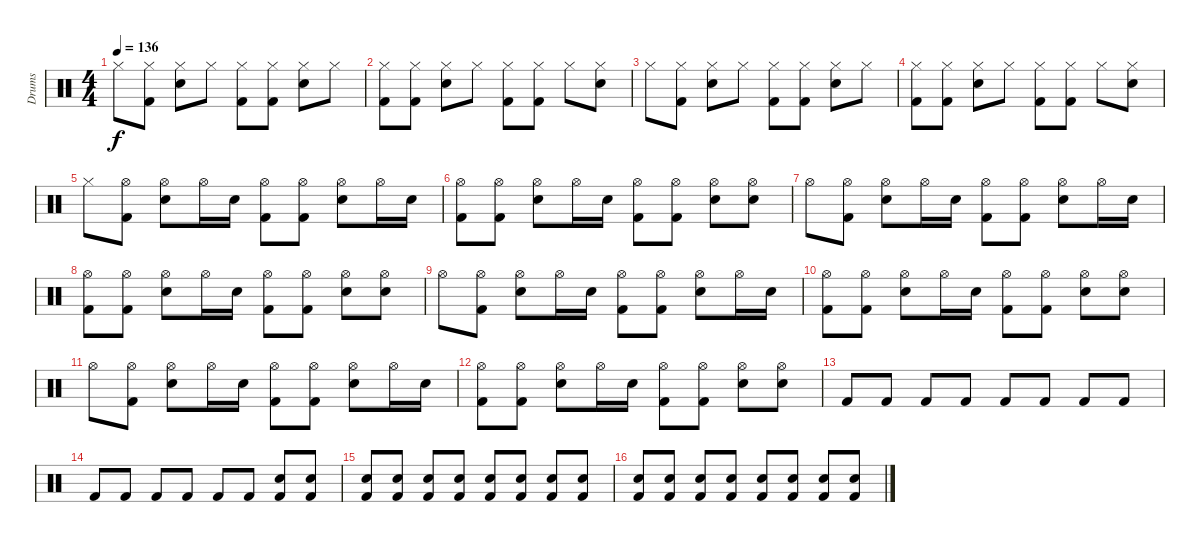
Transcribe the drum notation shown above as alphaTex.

\track ("Drums" "Drums") {instrument percussion}
\staff {score}
\articulation defaults
\ts (4 4)
\tempo 136
\clef neutral
\ks c "Hi-Hat (closed)".8{dy f}
("Hi-Hat (closed)" "Kick (hit) 2").8 ("Hi-Hat (closed)" "Snare (hit) 2").8 "Hi-Hat (closed)".8 ("Hi-Hat (closed)" "Kick (hit) 2").8 ("Hi-Hat (closed)" "Kick (hit) 2").8 ("Hi-Hat (closed)" "Snare (hit) 2").8 "Hi-Hat (closed)".8 |
("Hi-Hat (closed)" "Kick (hit) 2").8 ("Hi-Hat (closed)" "Kick (hit) 2").8 ("Hi-Hat (closed)" "Snare (hit) 2").8 "Hi-Hat (closed)".8 ("Hi-Hat (closed)" "Kick (hit) 2").8 ("Hi-Hat (closed)" "Kick (hit) 2").8 "Hi-Hat (closed)".8 ("Hi-Hat (closed)" "Snare (hit) 2").8 |
"Hi-Hat (closed)".8 ("Hi-Hat (closed)" "Kick (hit) 2").8 ("Hi-Hat (closed)" "Snare (hit) 2").8 "Hi-Hat (closed)".8 ("Hi-Hat (closed)" "Kick (hit) 2").8 ("Hi-Hat (closed)" "Kick (hit) 2").8 ("Hi-Hat (closed)" "Snare (hit) 2").8 "Hi-Hat (closed)".8 |
("Hi-Hat (closed)" "Kick (hit) 2").8 ("Hi-Hat (closed)" "Kick (hit) 2").8 ("Hi-Hat (closed)" "Snare (hit) 2").8 "Hi-Hat (closed)".8 ("Hi-Hat (closed)" "Kick (hit) 2").8 ("Hi-Hat (closed)" "Kick (hit) 2").8 "Hi-Hat (closed)".8 ("Hi-Hat (closed)" "Snare (hit) 2").8 |
"Hi-Hat (closed)".8 ("Hi-Hat (open)" "Kick (hit) 2").8 ("Hi-Hat (open)" "Snare (hit) 2").8 "Hi-Hat (open)".16 "Snare (hit) 2".16 ("Hi-Hat (open)" "Kick (hit) 2").8 ("Hi-Hat (open)" "Kick (hit) 2").8 ("Hi-Hat (open)" "Snare (hit) 2").8 "Hi-Hat (open)".16 "Snare (hit) 2".16 |
("Hi-Hat (open)" "Kick (hit) 2").8 ("Hi-Hat (open)" "Kick (hit) 2").8 ("Hi-Hat (open)" "Snare (hit) 2").8 "Hi-Hat (open)".16 "Snare (hit) 2".16 ("Hi-Hat (open)" "Kick (hit) 2").8 ("Hi-Hat (open)" "Kick (hit) 2").8 ("Hi-Hat (open)" "Snare (hit) 2").8 ("Hi-Hat (open)" "Snare (hit) 2").8 |
"Hi-Hat (open)".8 ("Hi-Hat (open)" "Kick (hit) 2").8 ("Hi-Hat (open)" "Snare (hit) 2").8 "Hi-Hat (open)".16 "Snare (hit) 2".16 ("Hi-Hat (open)" "Kick (hit) 2").8 ("Hi-Hat (open)" "Kick (hit) 2").8 ("Hi-Hat (open)" "Snare (hit) 2").8 "Hi-Hat (open)".16 "Snare (hit) 2".16 |
("Hi-Hat (open)" "Kick (hit) 2").8 ("Hi-Hat (open)" "Kick (hit) 2").8 ("Hi-Hat (open)" "Snare (hit) 2").8 "Hi-Hat (open)".16 "Snare (hit) 2".16 ("Hi-Hat (open)" "Kick (hit) 2").8 ("Hi-Hat (open)" "Kick (hit) 2").8 ("Hi-Hat (open)" "Snare (hit) 2").8 ("Hi-Hat (open)" "Snare (hit) 2").8 |
"Hi-Hat (open)".8 ("Hi-Hat (open)" "Kick (hit) 2").8 ("Hi-Hat (open)" "Snare (hit) 2").8 "Hi-Hat (open)".16 "Snare (hit) 2".16 ("Hi-Hat (open)" "Kick (hit) 2").8 ("Hi-Hat (open)" "Kick (hit) 2").8 ("Hi-Hat (open)" "Snare (hit) 2").8 "Hi-Hat (open)".16 "Snare (hit) 2".16 |
("Hi-Hat (open)" "Kick (hit) 2").8 ("Hi-Hat (open)" "Kick (hit) 2").8 ("Hi-Hat (open)" "Snare (hit) 2").8 "Hi-Hat (open)".16 "Snare (hit) 2".16 ("Hi-Hat (open)" "Kick (hit) 2").8 ("Hi-Hat (open)" "Kick (hit) 2").8 ("Hi-Hat (open)" "Snare (hit) 2").8 ("Hi-Hat (open)" "Snare (hit) 2").8 |
"Hi-Hat (open)".8 ("Hi-Hat (open)" "Kick (hit) 2").8 ("Hi-Hat (open)" "Snare (hit) 2").8 "Hi-Hat (open)".16 "Snare (hit) 2".16 ("Hi-Hat (open)" "Kick (hit) 2").8 ("Hi-Hat (open)" "Kick (hit) 2").8 ("Hi-Hat (open)" "Snare (hit) 2").8 "Hi-Hat (open)".16 "Snare (hit) 2".16 |
("Hi-Hat (open)" "Kick (hit) 2").8 ("Hi-Hat (open)" "Kick (hit) 2").8 ("Hi-Hat (open)" "Snare (hit) 2").8 "Hi-Hat (open)".16 "Snare (hit) 2".16 ("Hi-Hat (open)" "Kick (hit) 2").8 ("Hi-Hat (open)" "Kick (hit) 2").8 ("Hi-Hat (open)" "Snare (hit) 2").8 ("Hi-Hat (open)" "Snare (hit) 2").8 |
"Kick (hit) 2".8{volume 7} "Kick (hit) 2".8 "Kick (hit) 2".8 "Kick (hit) 2".8 "Kick (hit) 2".8 "Kick (hit) 2".8 "Kick (hit) 2".8 "Kick (hit) 2".8 |
"Kick (hit) 2".8{volume 7} "Kick (hit) 2".8 "Kick (hit) 2".8 "Kick (hit) 2".8 "Kick (hit) 2".8 "Kick (hit) 2".8 ("Snare (hit) 2" "Kick (hit) 2").8 ("Snare (hit) 2" "Kick (hit) 2").8 |
("Snare (hit) 2" "Kick (hit) 2").8{volume 13} ("Snare (hit) 2" "Kick (hit) 2").8 ("Snare (hit) 2" "Kick (hit) 2").8 ("Snare (hit) 2" "Kick (hit) 2").8 ("Snare (hit) 2" "Kick (hit) 2").8 ("Snare (hit) 2" "Kick (hit) 2").8 ("Snare (hit) 2" "Kick (hit) 2").8 ("Snare (hit) 2" "Kick (hit) 2").8 |
("Snare (hit) 2" "Kick (hit) 2").8{volume 13} ("Snare (hit) 2" "Kick (hit) 2").8 ("Snare (hit) 2" "Kick (hit) 2").8 ("Snare (hit) 2" "Kick (hit) 2").8 ("Snare (hit) 2" "Kick (hit) 2").8 ("Snare (hit) 2" "Kick (hit) 2").8 ("Snare (hit) 2" "Kick (hit) 2").8 ("Snare (hit) 2" "Kick (hit) 2").8
